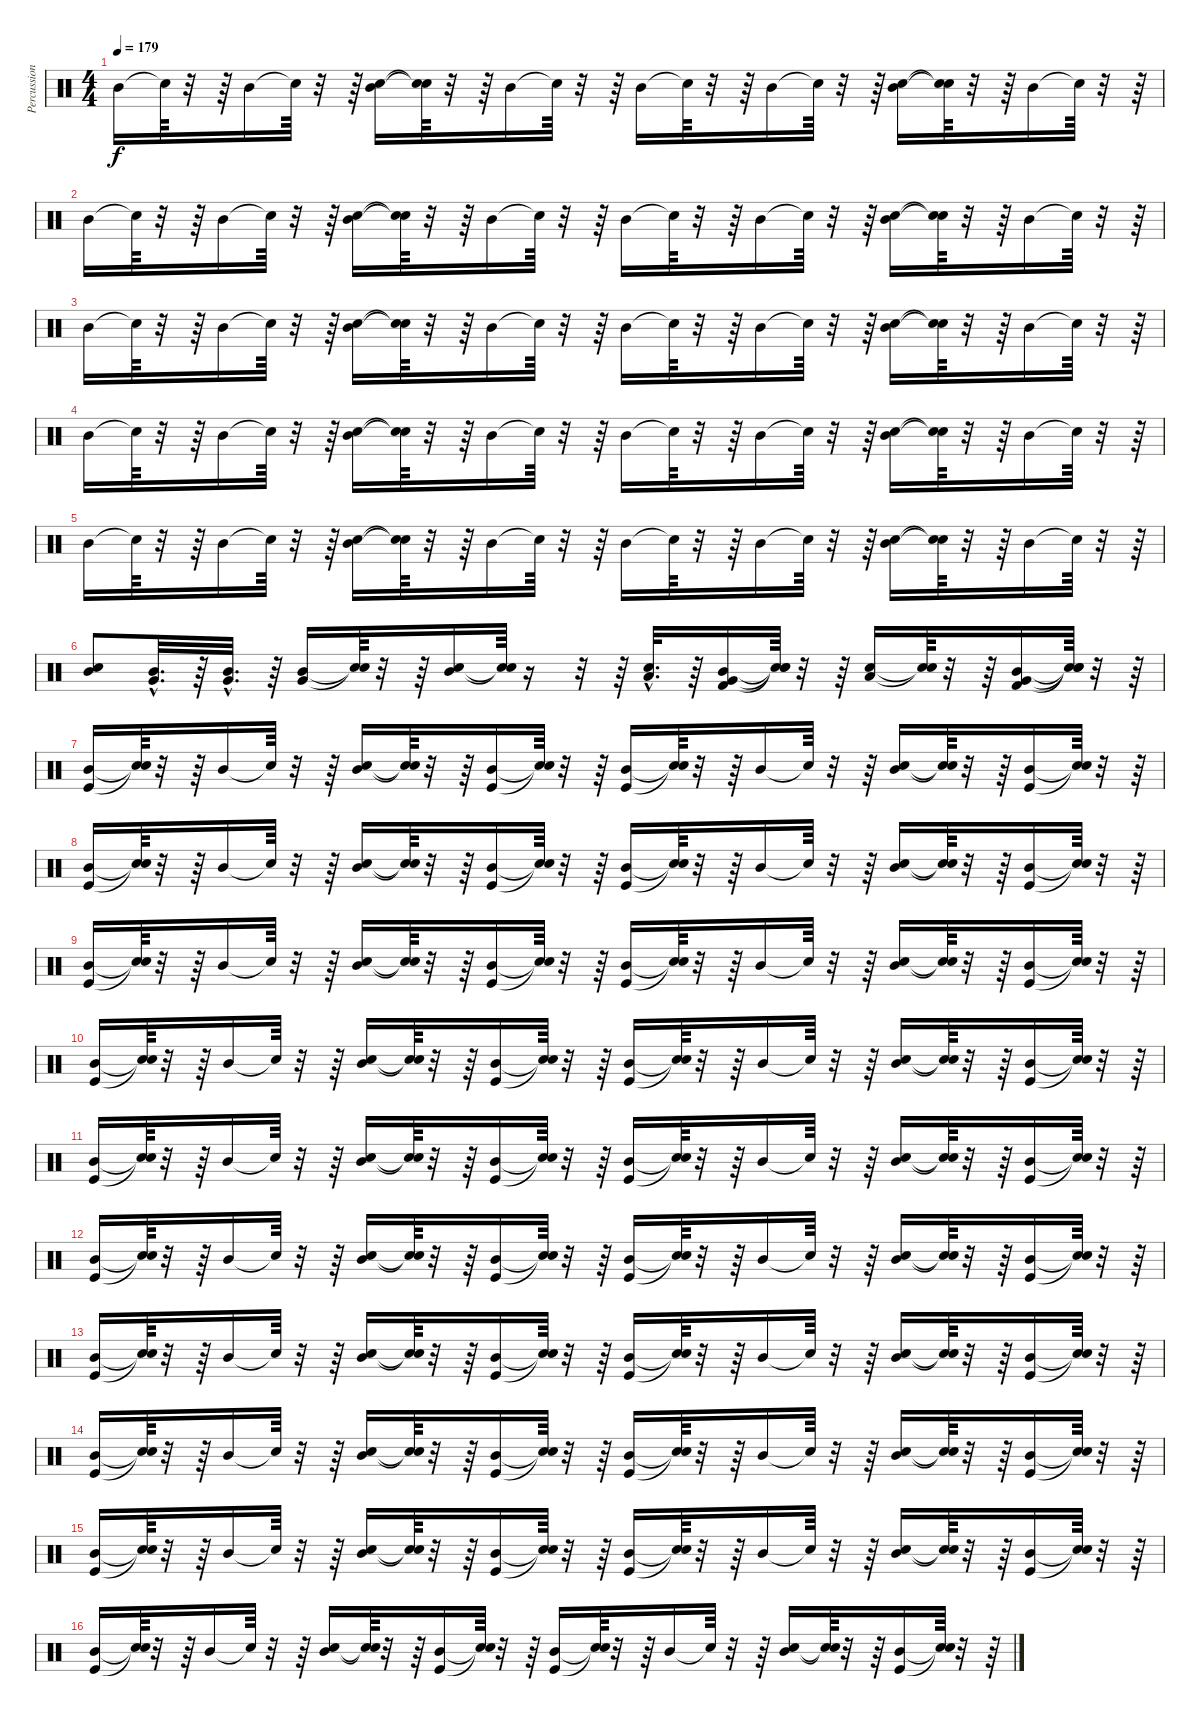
\track ("Percussion" "Percussion") {instrument percussion}
\staff {score}
\articulation defaults
\ts (4 4)
\tempo 179
\clef neutral
\ks c "Mid Tom (hit)".16{dy f} "Snare (hit)"{t}.64
r.32 r.64 "Mid Tom (hit)".16 "Snare (hit)"{t}.64 r.32 r.64 ("Mid Tom (hit)" "Snare (hit) 2").16 ("Snare (hit)"{t} "Snare (hit)"{t}).64 r.32 r.64 "Mid Tom (hit)".16 "Snare (hit)"{t}.64 r.32 r.64 "Mid Tom (hit)".16 "Snare (hit)"{t}.64 r.32 r.64 "Mid Tom (hit)".16 "Snare (hit)"{t}.64 r.32 r.64 ("Mid Tom (hit)" "Snare (hit) 2").16 ("Snare (hit)"{t} "Snare (hit)"{t}).64 r.32 r.64 "Mid Tom (hit)".16 "Snare (hit)"{t}.64 r.32 r.64 |
"Mid Tom (hit)".16 "Snare (hit)"{t}.64 r.32 r.64 "Mid Tom (hit)".16 "Snare (hit)"{t}.64 r.32 r.64 ("Mid Tom (hit)" "Snare (hit) 2").16 ("Snare (hit)"{t} "Snare (hit)"{t}).64 r.32 r.64 "Mid Tom (hit)".16 "Snare (hit)"{t}.64 r.32 r.64 "Mid Tom (hit)".16 "Snare (hit)"{t}.64 r.32 r.64 "Mid Tom (hit)".16 "Snare (hit)"{t}.64 r.32 r.64 ("Mid Tom (hit)" "Snare (hit) 2").16 ("Snare (hit)"{t} "Snare (hit)"{t}).64 r.32 r.64 "Mid Tom (hit)".16 "Snare (hit)"{t}.64 r.32 r.64 |
"Mid Tom (hit)".16 "Snare (hit)"{t}.64 r.32 r.64 "Mid Tom (hit)".16 "Snare (hit)"{t}.64 r.32 r.64 ("Mid Tom (hit)" "Snare (hit) 2").16 ("Snare (hit)"{t} "Snare (hit)"{t}).64 r.32 r.64 "Mid Tom (hit)".16 "Snare (hit)"{t}.64 r.32 r.64 "Mid Tom (hit)".16 "Snare (hit)"{t}.64 r.32 r.64 "Mid Tom (hit)".16 "Snare (hit)"{t}.64 r.32 r.64 ("Mid Tom (hit)" "Snare (hit) 2").16 ("Snare (hit)"{t} "Snare (hit)"{t}).64 r.32 r.64 "Mid Tom (hit)".16 "Snare (hit)"{t}.64 r.32 r.64 |
"Mid Tom (hit)".16 "Snare (hit)"{t}.64 r.32 r.64 "Mid Tom (hit)".16 "Snare (hit)"{t}.64 r.32 r.64 ("Mid Tom (hit)" "Snare (hit) 2").16 ("Snare (hit)"{t} "Snare (hit)"{t}).64 r.32 r.64 "Mid Tom (hit)".16 "Snare (hit)"{t}.64 r.32 r.64 "Mid Tom (hit)".16 "Snare (hit)"{t}.64 r.32 r.64 "Mid Tom (hit)".16 "Snare (hit)"{t}.64 r.32 r.64 ("Mid Tom (hit)" "Snare (hit) 2").16 ("Snare (hit)"{t} "Snare (hit)"{t}).64 r.32 r.64 "Mid Tom (hit)".16 "Snare (hit)"{t}.64 r.32 r.64 |
"Mid Tom (hit)".16 "Snare (hit)"{t}.64 r.32 r.64 "Mid Tom (hit)".16 "Snare (hit)"{t}.64 r.32 r.64 ("Mid Tom (hit)" "Snare (hit) 2").16 ("Snare (hit)"{t} "Snare (hit)"{t}).64 r.32 r.64 "Mid Tom (hit)".16 "Snare (hit)"{t}.64 r.32 r.64 "Mid Tom (hit)".16 "Snare (hit)"{t}.64 r.32 r.64 "Mid Tom (hit)".16 "Snare (hit)"{t}.64 r.32 r.64 ("Mid Tom (hit)" "Snare (hit) 2").16 ("Snare (hit)"{t} "Snare (hit)"{t}).64 r.32 r.64 "Mid Tom (hit)".16 "Snare (hit)"{t}.64 r.32 r.64 |
("Mid Tom (hit)" "Snare (hit) 2").8 ("Mid Tom (hit)"{hac} "Very Low Tom (hit)"{hac}).32{d} r.64 ("Mid Tom (hit)"{hac} "Very Low Tom (hit)"{hac}).32{d} r.64 ("Mid Tom (hit)" "Very Low Tom (hit)").16 ("Snare (hit)"{t} "Snare (hit)"{t}).64 r.32 r.64 ("Mid Tom (hit)" "Snare (hit) 2").16 ("Snare (hit)"{t} "Snare (hit)"{t}).64 r.16 r.32 r.64 ("Low Tom (hit)"{hac} "Snare (hit) 2"{hac}).32{d} r.64 ("Mid Tom (hit)" "Very Low Tom (hit)" "Kick (hit) 2").16 ("Snare (hit)"{t} "Snare (hit)"{t} "Snare (hit)"{t}).64 r.32 r.64 ("Low Tom (hit)" "Snare (hit) 2").16 ("Snare (hit)"{t} "Snare (hit)"{t}).64 r.32 r.64 ("Mid Tom (hit)" "Very Low Tom (hit)" "Kick (hit) 2").16 ("Snare (hit)"{t} "Snare (hit)"{t} "Snare (hit)"{t}).64 r.32 r.64 |
("Kick (hit)" "Mid Tom (hit)").16 ("Snare (hit)"{t} "Snare (hit)"{t}).64 r.32 r.64 "Mid Tom (hit)".16 "Snare (hit)"{t}.64 r.32 r.64 ("Mid Tom (hit)" "Snare (hit) 2").16 ("Snare (hit)"{t} "Snare (hit)"{t}).64 r.32 r.64 ("Kick (hit)" "Mid Tom (hit)").16 ("Snare (hit)"{t} "Snare (hit)"{t}).64 r.32 r.64 ("Kick (hit)" "Mid Tom (hit)").16 ("Snare (hit)"{t} "Snare (hit)"{t}).64 r.32 r.64 "Mid Tom (hit)".16 "Snare (hit)"{t}.64 r.32 r.64 ("Mid Tom (hit)" "Snare (hit) 2").16 ("Snare (hit)"{t} "Snare (hit)"{t}).64 r.32 r.64 ("Kick (hit)" "Mid Tom (hit)").16 ("Snare (hit)"{t} "Snare (hit)"{t}).64 r.32 r.64 |
("Kick (hit)" "Mid Tom (hit)").16 ("Snare (hit)"{t} "Snare (hit)"{t}).64 r.32 r.64 "Mid Tom (hit)".16 "Snare (hit)"{t}.64 r.32 r.64 ("Mid Tom (hit)" "Snare (hit) 2").16 ("Snare (hit)"{t} "Snare (hit)"{t}).64 r.32 r.64 ("Kick (hit)" "Mid Tom (hit)").16 ("Snare (hit)"{t} "Snare (hit)"{t}).64 r.32 r.64 ("Kick (hit)" "Mid Tom (hit)").16 ("Snare (hit)"{t} "Snare (hit)"{t}).64 r.32 r.64 "Mid Tom (hit)".16 "Snare (hit)"{t}.64 r.32 r.64 ("Mid Tom (hit)" "Snare (hit) 2").16 ("Snare (hit)"{t} "Snare (hit)"{t}).64 r.32 r.64 ("Kick (hit)" "Mid Tom (hit)").16 ("Snare (hit)"{t} "Snare (hit)"{t}).64 r.32 r.64 |
("Kick (hit)" "Mid Tom (hit)").16 ("Snare (hit)"{t} "Snare (hit)"{t}).64 r.32 r.64 "Mid Tom (hit)".16 "Snare (hit)"{t}.64 r.32 r.64 ("Mid Tom (hit)" "Snare (hit) 2").16 ("Snare (hit)"{t} "Snare (hit)"{t}).64 r.32 r.64 ("Kick (hit)" "Mid Tom (hit)").16 ("Snare (hit)"{t} "Snare (hit)"{t}).64 r.32 r.64 ("Kick (hit)" "Mid Tom (hit)").16 ("Snare (hit)"{t} "Snare (hit)"{t}).64 r.32 r.64 "Mid Tom (hit)".16 "Snare (hit)"{t}.64 r.32 r.64 ("Mid Tom (hit)" "Snare (hit) 2").16 ("Snare (hit)"{t} "Snare (hit)"{t}).64 r.32 r.64 ("Kick (hit)" "Mid Tom (hit)").16 ("Snare (hit)"{t} "Snare (hit)"{t}).64 r.32 r.64 |
("Kick (hit)" "Mid Tom (hit)").16 ("Snare (hit)"{t} "Snare (hit)"{t}).64 r.32 r.64 "Mid Tom (hit)".16 "Snare (hit)"{t}.64 r.32 r.64 ("Mid Tom (hit)" "Snare (hit) 2").16 ("Snare (hit)"{t} "Snare (hit)"{t}).64 r.32 r.64 ("Kick (hit)" "Mid Tom (hit)").16 ("Snare (hit)"{t} "Snare (hit)"{t}).64 r.32 r.64 ("Kick (hit)" "Mid Tom (hit)").16 ("Snare (hit)"{t} "Snare (hit)"{t}).64 r.32 r.64 "Mid Tom (hit)".16 "Snare (hit)"{t}.64 r.32 r.64 ("Mid Tom (hit)" "Snare (hit) 2").16 ("Snare (hit)"{t} "Snare (hit)"{t}).64 r.32 r.64 ("Kick (hit)" "Mid Tom (hit)").16 ("Snare (hit)"{t} "Snare (hit)"{t}).64 r.32 r.64 |
("Kick (hit)" "Mid Tom (hit)").16 ("Snare (hit)"{t} "Snare (hit)"{t}).64 r.32 r.64 "Mid Tom (hit)".16 "Snare (hit)"{t}.64 r.32 r.64 ("Mid Tom (hit)" "Snare (hit) 2").16 ("Snare (hit)"{t} "Snare (hit)"{t}).64 r.32 r.64 ("Kick (hit)" "Mid Tom (hit)").16 ("Snare (hit)"{t} "Snare (hit)"{t}).64 r.32 r.64 ("Kick (hit)" "Mid Tom (hit)").16 ("Snare (hit)"{t} "Snare (hit)"{t}).64 r.32 r.64 "Mid Tom (hit)".16 "Snare (hit)"{t}.64 r.32 r.64 ("Mid Tom (hit)" "Snare (hit) 2").16 ("Snare (hit)"{t} "Snare (hit)"{t}).64 r.32 r.64 ("Kick (hit)" "Mid Tom (hit)").16 ("Snare (hit)"{t} "Snare (hit)"{t}).64 r.32 r.64 |
("Kick (hit)" "Mid Tom (hit)").16 ("Snare (hit)"{t} "Snare (hit)"{t}).64 r.32 r.64 "Mid Tom (hit)".16 "Snare (hit)"{t}.64 r.32 r.64 ("Mid Tom (hit)" "Snare (hit) 2").16 ("Snare (hit)"{t} "Snare (hit)"{t}).64 r.32 r.64 ("Kick (hit)" "Mid Tom (hit)").16 ("Snare (hit)"{t} "Snare (hit)"{t}).64 r.32 r.64 ("Kick (hit)" "Mid Tom (hit)").16 ("Snare (hit)"{t} "Snare (hit)"{t}).64 r.32 r.64 "Mid Tom (hit)".16 "Snare (hit)"{t}.64 r.32 r.64 ("Mid Tom (hit)" "Snare (hit) 2").16 ("Snare (hit)"{t} "Snare (hit)"{t}).64 r.32 r.64 ("Kick (hit)" "Mid Tom (hit)").16 ("Snare (hit)"{t} "Snare (hit)"{t}).64 r.32 r.64 |
("Kick (hit)" "Mid Tom (hit)").16 ("Snare (hit)"{t} "Snare (hit)"{t}).64 r.32 r.64 "Mid Tom (hit)".16 "Snare (hit)"{t}.64 r.32 r.64 ("Mid Tom (hit)" "Snare (hit) 2").16 ("Snare (hit)"{t} "Snare (hit)"{t}).64 r.32 r.64 ("Kick (hit)" "Mid Tom (hit)").16 ("Snare (hit)"{t} "Snare (hit)"{t}).64 r.32 r.64 ("Kick (hit)" "Mid Tom (hit)").16 ("Snare (hit)"{t} "Snare (hit)"{t}).64 r.32 r.64 "Mid Tom (hit)".16 "Snare (hit)"{t}.64 r.32 r.64 ("Mid Tom (hit)" "Snare (hit) 2").16 ("Snare (hit)"{t} "Snare (hit)"{t}).64 r.32 r.64 ("Kick (hit)" "Mid Tom (hit)").16 ("Snare (hit)"{t} "Snare (hit)"{t}).64 r.32 r.64 |
("Kick (hit)" "Mid Tom (hit)").16 ("Snare (hit)"{t} "Snare (hit)"{t}).64 r.32 r.64 "Mid Tom (hit)".16 "Snare (hit)"{t}.64 r.32 r.64 ("Mid Tom (hit)" "Snare (hit) 2").16 ("Snare (hit)"{t} "Snare (hit)"{t}).64 r.32 r.64 ("Kick (hit)" "Mid Tom (hit)").16 ("Snare (hit)"{t} "Snare (hit)"{t}).64 r.32 r.64 ("Kick (hit)" "Mid Tom (hit)").16 ("Snare (hit)"{t} "Snare (hit)"{t}).64 r.32 r.64 "Mid Tom (hit)".16 "Snare (hit)"{t}.64 r.32 r.64 ("Mid Tom (hit)" "Snare (hit) 2").16 ("Snare (hit)"{t} "Snare (hit)"{t}).64 r.32 r.64 ("Kick (hit)" "Mid Tom (hit)").16 ("Snare (hit)"{t} "Snare (hit)"{t}).64 r.32 r.64 |
("Kick (hit)" "Mid Tom (hit)").16 ("Snare (hit)"{t} "Snare (hit)"{t}).64 r.32 r.64 "Mid Tom (hit)".16 "Snare (hit)"{t}.64 r.32 r.64 ("Mid Tom (hit)" "Snare (hit) 2").16 ("Snare (hit)"{t} "Snare (hit)"{t}).64 r.32 r.64 ("Kick (hit)" "Mid Tom (hit)").16 ("Snare (hit)"{t} "Snare (hit)"{t}).64 r.32 r.64 ("Kick (hit)" "Mid Tom (hit)").16 ("Snare (hit)"{t} "Snare (hit)"{t}).64 r.32 r.64 "Mid Tom (hit)".16 "Snare (hit)"{t}.64 r.32 r.64 ("Mid Tom (hit)" "Snare (hit) 2").16 ("Snare (hit)"{t} "Snare (hit)"{t}).64 r.32 r.64 ("Kick (hit)" "Mid Tom (hit)").16 ("Snare (hit)"{t} "Snare (hit)"{t}).64 r.32 r.64 |
("Kick (hit)" "Mid Tom (hit)").16 ("Snare (hit)"{t} "Snare (hit)"{t}).64 r.32 r.64 "Mid Tom (hit)".16 "Snare (hit)"{t}.64 r.32 r.64 ("Mid Tom (hit)" "Snare (hit) 2").16 ("Snare (hit)"{t} "Snare (hit)"{t}).64 r.32 r.64 ("Kick (hit)" "Mid Tom (hit)").16 ("Snare (hit)"{t} "Snare (hit)"{t}).64 r.32 r.64 ("Kick (hit)" "Mid Tom (hit)").16 ("Snare (hit)"{t} "Snare (hit)"{t}).64 r.32 r.64 "Mid Tom (hit)".16 "Snare (hit)"{t}.64 r.32 r.64 ("Mid Tom (hit)" "Snare (hit) 2").16 ("Snare (hit)"{t} "Snare (hit)"{t}).64 r.32 r.64 ("Kick (hit)" "Mid Tom (hit)").16 ("Snare (hit)"{t} "Snare (hit)"{t}).64 r.32 r.64
